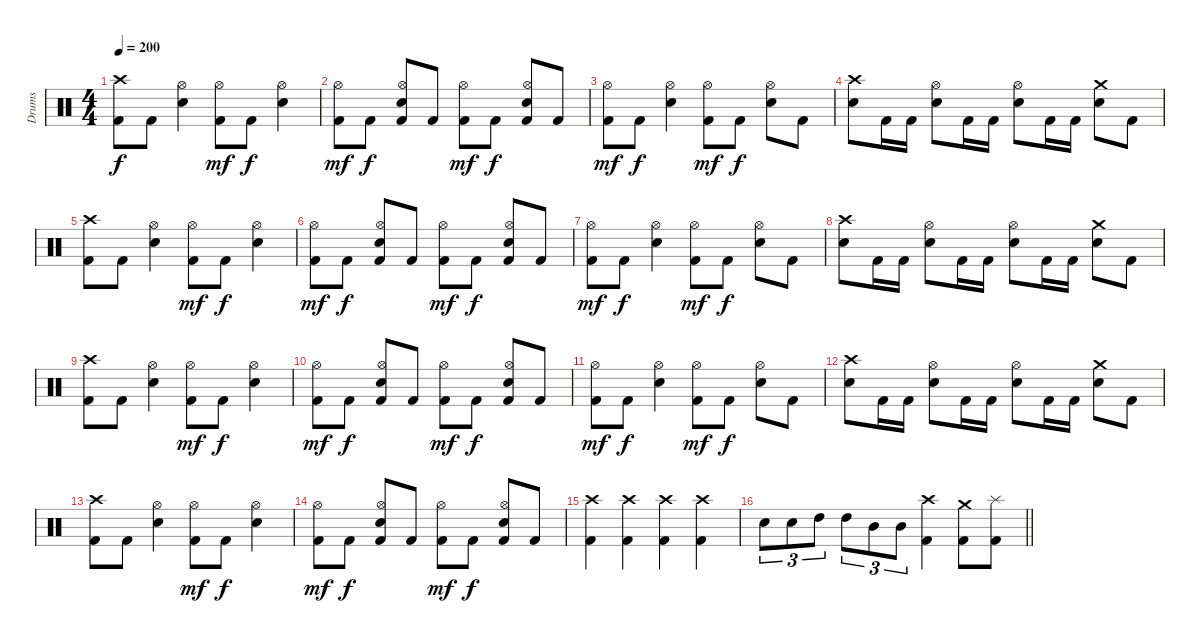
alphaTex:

\track ("Drums" "Drums") {instrument percussion}
\staff {score}
\articulation defaults
\ts (4 4)
\tempo 200
\clef neutral
\ks c
("Crash high (hit)" "Kick (hit) 2").8{dy f} "Kick (hit) 2".8 ("Hi-Hat (open)" "Electric Snare (hit)").4 ("Hi-Hat (open)" "Kick (hit) 2").8{dy mf} "Kick (hit) 2".8{dy f} ("Hi-Hat (open)" "Electric Snare (hit)").4 |
("Hi-Hat (open)" "Kick (hit) 2").8{dy mf} "Kick (hit) 2".8{dy f} ("Hi-Hat (open)" "Electric Snare (hit)" "Kick (hit) 2").8 "Kick (hit) 2".8 ("Hi-Hat (open)" "Kick (hit) 2").8{dy mf} "Kick (hit) 2".8{dy f} ("Hi-Hat (open)" "Electric Snare (hit)" "Kick (hit) 2").8 "Kick (hit) 2".8 |
("Hi-Hat (open)" "Kick (hit) 2").8{dy mf} "Kick (hit) 2".8{dy f} ("Hi-Hat (open)" "Electric Snare (hit)").4 ("Hi-Hat (open)" "Kick (hit) 2").8{dy mf} "Kick (hit) 2".8{dy f} ("Hi-Hat (open)" "Electric Snare (hit)").8 "Kick (hit) 2".8 |
("Crash high (hit)" "Electric Snare (hit)").8 "Kick (hit) 2".16 "Kick (hit) 2".16 ("Hi-Hat (open)" "Electric Snare (hit)").8 "Kick (hit) 2".16 "Kick (hit) 2".16 ("Hi-Hat (open)" "Electric Snare (hit)").8 "Kick (hit) 2".16 "Kick (hit) 2".16 ("Crash medium (hit)" "Electric Snare (hit)").8 "Kick (hit) 2".8 |
("Crash high (hit)" "Kick (hit) 2").8 "Kick (hit) 2".8 ("Hi-Hat (open)" "Electric Snare (hit)").4 ("Hi-Hat (open)" "Kick (hit) 2").8{dy mf} "Kick (hit) 2".8{dy f} ("Hi-Hat (open)" "Electric Snare (hit)").4 |
("Hi-Hat (open)" "Kick (hit) 2").8{dy mf} "Kick (hit) 2".8{dy f} ("Hi-Hat (open)" "Electric Snare (hit)" "Kick (hit) 2").8 "Kick (hit) 2".8 ("Hi-Hat (open)" "Kick (hit) 2").8{dy mf} "Kick (hit) 2".8{dy f} ("Hi-Hat (open)" "Electric Snare (hit)" "Kick (hit) 2").8 "Kick (hit) 2".8 |
("Hi-Hat (open)" "Kick (hit) 2").8{dy mf} "Kick (hit) 2".8{dy f} ("Hi-Hat (open)" "Electric Snare (hit)").4 ("Hi-Hat (open)" "Kick (hit) 2").8{dy mf} "Kick (hit) 2".8{dy f} ("Hi-Hat (open)" "Electric Snare (hit)").8 "Kick (hit) 2".8 |
("Crash high (hit)" "Electric Snare (hit)").8 "Kick (hit) 2".16 "Kick (hit) 2".16 ("Hi-Hat (open)" "Electric Snare (hit)").8 "Kick (hit) 2".16 "Kick (hit) 2".16 ("Hi-Hat (open)" "Electric Snare (hit)").8 "Kick (hit) 2".16 "Kick (hit) 2".16 ("Crash medium (hit)" "Electric Snare (hit)").8 "Kick (hit) 2".8 |
("Crash high (hit)" "Kick (hit) 2").8 "Kick (hit) 2".8 ("Hi-Hat (open)" "Electric Snare (hit)").4 ("Hi-Hat (open)" "Kick (hit) 2").8{dy mf} "Kick (hit) 2".8{dy f} ("Hi-Hat (open)" "Electric Snare (hit)").4 |
("Hi-Hat (open)" "Kick (hit) 2").8{dy mf} "Kick (hit) 2".8{dy f} ("Hi-Hat (open)" "Electric Snare (hit)" "Kick (hit) 2").8 "Kick (hit) 2".8 ("Hi-Hat (open)" "Kick (hit) 2").8{dy mf} "Kick (hit) 2".8{dy f} ("Hi-Hat (open)" "Electric Snare (hit)" "Kick (hit) 2").8 "Kick (hit) 2".8 |
("Hi-Hat (open)" "Kick (hit) 2").8{dy mf} "Kick (hit) 2".8{dy f} ("Hi-Hat (open)" "Electric Snare (hit)").4 ("Hi-Hat (open)" "Kick (hit) 2").8{dy mf} "Kick (hit) 2".8{dy f} ("Hi-Hat (open)" "Electric Snare (hit)").8 "Kick (hit) 2".8 |
("Crash high (hit)" "Electric Snare (hit)").8 "Kick (hit) 2".16 "Kick (hit) 2".16 ("Hi-Hat (open)" "Electric Snare (hit)").8 "Kick (hit) 2".16 "Kick (hit) 2".16 ("Hi-Hat (open)" "Electric Snare (hit)").8 "Kick (hit) 2".16 "Kick (hit) 2".16 ("Crash medium (hit)" "Electric Snare (hit)").8 "Kick (hit) 2".8 |
("Crash high (hit)" "Kick (hit) 2").8 "Kick (hit) 2".8 ("Hi-Hat (open)" "Electric Snare (hit)").4 ("Hi-Hat (open)" "Kick (hit) 2").8{dy mf} "Kick (hit) 2".8{dy f} ("Hi-Hat (open)" "Electric Snare (hit)").4 |
("Hi-Hat (open)" "Kick (hit) 2").8{dy mf} "Kick (hit) 2".8{dy f} ("Hi-Hat (open)" "Electric Snare (hit)" "Kick (hit) 2").8 "Kick (hit) 2".8 ("Hi-Hat (open)" "Kick (hit) 2").8{dy mf} "Kick (hit) 2".8{dy f} ("Hi-Hat (open)" "Electric Snare (hit)" "Kick (hit) 2").8 "Kick (hit) 2".8 |
("Crash high (hit)" "Kick (hit) 2").4 ("Crash high (hit)" "Kick (hit) 2").4 ("Crash high (hit)" "Kick (hit) 2").4 ("Crash high (hit)" "Kick (hit) 2").4 |
\barLineRight lightlight "Electric Snare (hit)".8{tu (3 2)} "Electric Snare (hit)".8{tu (3 2)} "High Tom (hit)".8{tu (3 2)} "High Tom (hit)".8{tu (3 2)} "Mid Tom (hit)".8{tu (3 2)} "Mid Tom (hit)".8{tu (3 2)}
("Crash high (hit)" "Kick (hit) 2").4 ("Crash medium (hit)" "Kick (hit) 2").8 ("Splash (hit)" "Kick (hit) 2").8
